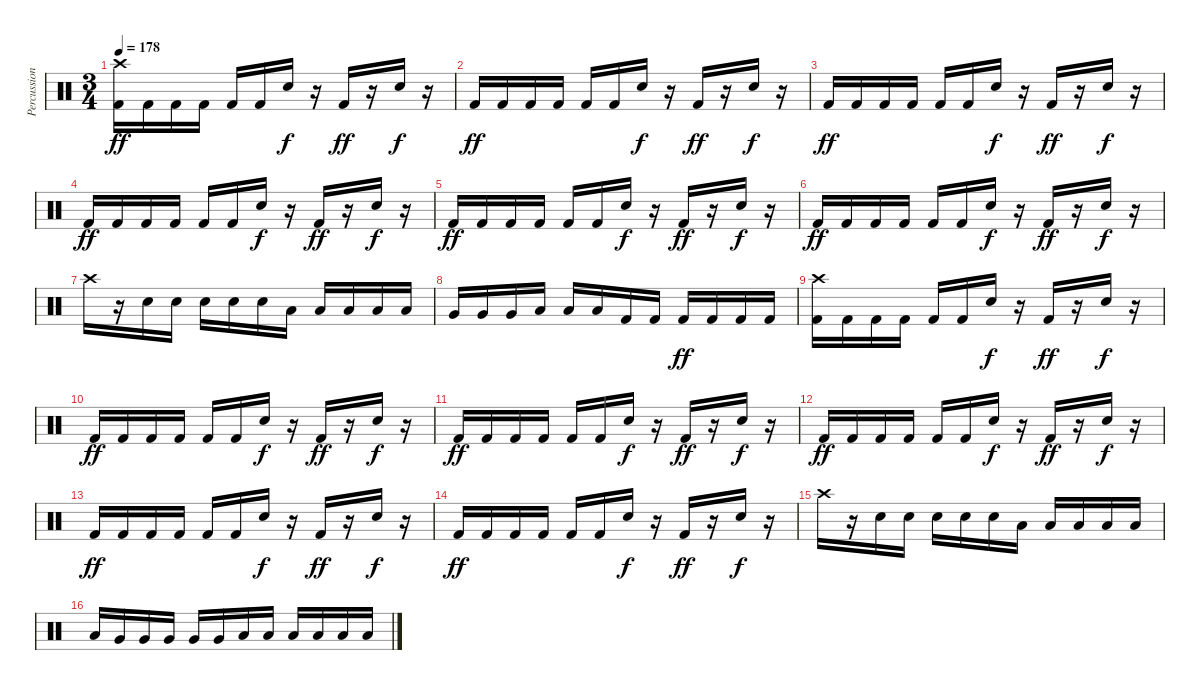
\track ("Percussion" "Percussion") {instrument percussion}
\staff {score}
\articulation defaults
\ts (3 4)
\tempo 178
\clef neutral
\ks c
("Crash high (hit)" "Kick (hit) 2").16{dy ff} "Kick (hit) 2".16 "Kick (hit) 2".16 "Kick (hit) 2".16 "Kick (hit) 2".16 "Kick (hit) 2".16 "Electric Snare (hit)".16{dy f} r.16 "Kick (hit) 2".16{dy ff} r.16 "Electric Snare (hit)".16{dy f} r.16 |
"Kick (hit) 2".16{dy ff} "Kick (hit) 2".16 "Kick (hit) 2".16 "Kick (hit) 2".16 "Kick (hit) 2".16 "Kick (hit) 2".16 "Electric Snare (hit)".16{dy f} r.16 "Kick (hit) 2".16{dy ff} r.16 "Electric Snare (hit)".16{dy f} r.16 |
"Kick (hit) 2".16{dy ff} "Kick (hit) 2".16 "Kick (hit) 2".16 "Kick (hit) 2".16 "Kick (hit) 2".16 "Kick (hit) 2".16 "Electric Snare (hit)".16{dy f} r.16 "Kick (hit) 2".16{dy ff} r.16 "Electric Snare (hit)".16{dy f} r.16 |
"Kick (hit) 2".16{dy ff} "Kick (hit) 2".16 "Kick (hit) 2".16 "Kick (hit) 2".16 "Kick (hit) 2".16 "Kick (hit) 2".16 "Electric Snare (hit)".16{dy f} r.16 "Kick (hit) 2".16{dy ff} r.16 "Electric Snare (hit)".16{dy f} r.16 |
"Kick (hit) 2".16{dy ff} "Kick (hit) 2".16 "Kick (hit) 2".16 "Kick (hit) 2".16 "Kick (hit) 2".16 "Kick (hit) 2".16 "Electric Snare (hit)".16{dy f} r.16 "Kick (hit) 2".16{dy ff} r.16 "Electric Snare (hit)".16{dy f} r.16 |
"Kick (hit) 2".16{dy ff} "Kick (hit) 2".16 "Kick (hit) 2".16 "Kick (hit) 2".16 "Kick (hit) 2".16 "Kick (hit) 2".16 "Electric Snare (hit)".16{dy f} r.16 "Kick (hit) 2".16{dy ff} r.16 "Electric Snare (hit)".16{dy f} r.16 |
"Crash high (hit)".16 r.16 "Electric Snare (hit)".16 "Electric Snare (hit)".16 "Electric Snare (hit)".16 "Electric Snare (hit)".16 "Electric Snare (hit)".16 "Low Tom (hit)".16 "Low Tom (hit)".16 "Low Tom (hit)".16 "Low Tom (hit)".16 "Low Tom (hit)".16 |
"Very Low Tom (hit)".16 "Very Low Tom (hit)".16 "Very Low Tom (hit)".16 "Low Floor Tom (hit)".16 "Low Floor Tom (hit)".16 "Low Floor Tom (hit)".16 "Kick (hit) 2".16 "Kick (hit) 2".16 "Kick (hit) 2".16{dy ff} "Kick (hit) 2".16 "Kick (hit) 2".16 "Kick (hit) 2".16 |
("Crash high (hit)" "Kick (hit) 2").16 "Kick (hit) 2".16 "Kick (hit) 2".16 "Kick (hit) 2".16 "Kick (hit) 2".16 "Kick (hit) 2".16 "Electric Snare (hit)".16{dy f} r.16 "Kick (hit) 2".16{dy ff} r.16 "Electric Snare (hit)".16{dy f} r.16 |
"Kick (hit) 2".16{dy ff} "Kick (hit) 2".16 "Kick (hit) 2".16 "Kick (hit) 2".16 "Kick (hit) 2".16 "Kick (hit) 2".16 "Electric Snare (hit)".16{dy f} r.16 "Kick (hit) 2".16{dy ff} r.16 "Electric Snare (hit)".16{dy f} r.16 |
"Kick (hit) 2".16{dy ff} "Kick (hit) 2".16 "Kick (hit) 2".16 "Kick (hit) 2".16 "Kick (hit) 2".16 "Kick (hit) 2".16 "Electric Snare (hit)".16{dy f} r.16 "Kick (hit) 2".16{dy ff} r.16 "Electric Snare (hit)".16{dy f} r.16 |
"Kick (hit) 2".16{dy ff} "Kick (hit) 2".16 "Kick (hit) 2".16 "Kick (hit) 2".16 "Kick (hit) 2".16 "Kick (hit) 2".16 "Electric Snare (hit)".16{dy f} r.16 "Kick (hit) 2".16{dy ff} r.16 "Electric Snare (hit)".16{dy f} r.16 |
"Kick (hit) 2".16{dy ff} "Kick (hit) 2".16 "Kick (hit) 2".16 "Kick (hit) 2".16 "Kick (hit) 2".16 "Kick (hit) 2".16 "Electric Snare (hit)".16{dy f} r.16 "Kick (hit) 2".16{dy ff} r.16 "Electric Snare (hit)".16{dy f} r.16 |
"Kick (hit) 2".16{dy ff} "Kick (hit) 2".16 "Kick (hit) 2".16 "Kick (hit) 2".16 "Kick (hit) 2".16 "Kick (hit) 2".16 "Electric Snare (hit)".16{dy f} r.16 "Kick (hit) 2".16{dy ff} r.16 "Electric Snare (hit)".16{dy f} r.16 |
"Crash high (hit)".16 r.16 "Electric Snare (hit)".16 "Electric Snare (hit)".16 "Electric Snare (hit)".16 "Electric Snare (hit)".16 "Electric Snare (hit)".16 "Low Tom (hit)".16 "Low Tom (hit)".16 "Low Tom (hit)".16 "Low Tom (hit)".16 "Low Tom (hit)".16 |
"Low Tom (hit)".16 "Very Low Tom (hit)".16 "Very Low Tom (hit)".16 "Very Low Tom (hit)".16 "Very Low Tom (hit)".16 "Very Low Tom (hit)".16 "Low Floor Tom (hit)".16 "Low Floor Tom (hit)".16 "Low Floor Tom (hit)".16 "Low Floor Tom (hit)".16 "Low Floor Tom (hit)".16 "Low Floor Tom (hit)".16
